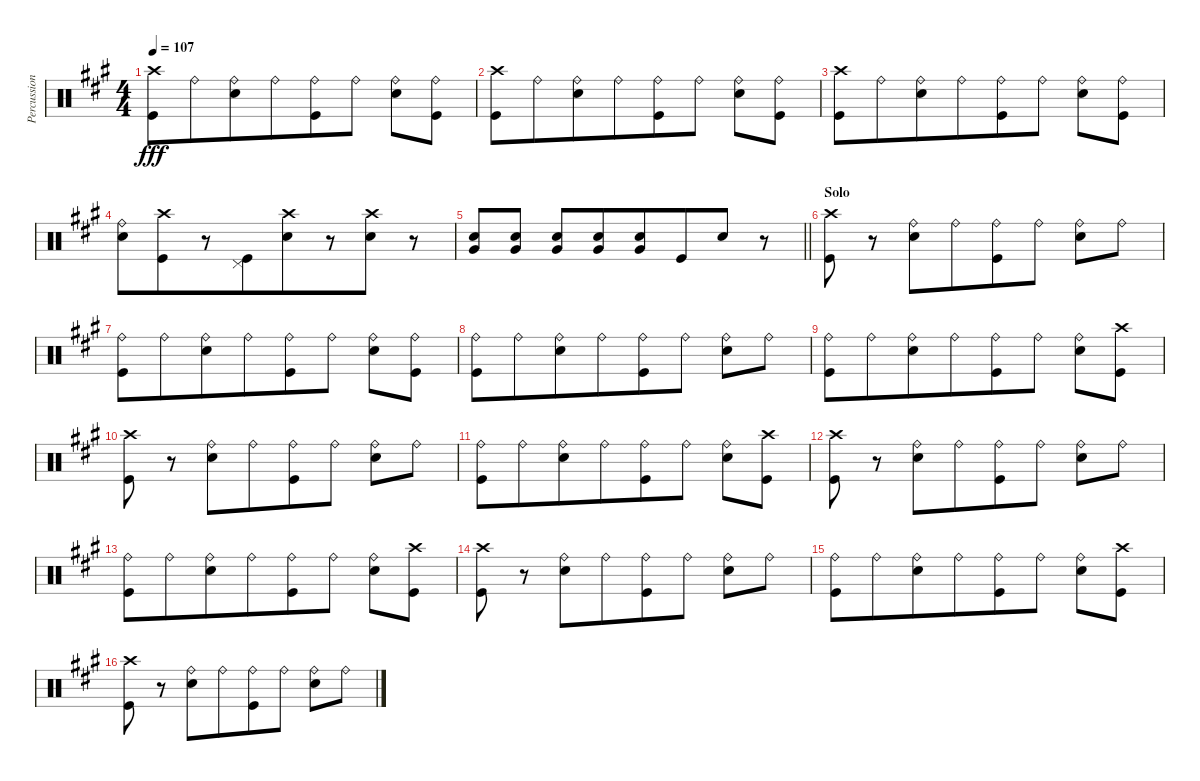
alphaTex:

\track ("Percussion" "Percussion") {instrument percussion}
\staff {score}
\articulation defaults
\ts (4 4)
\tempo 107
\clef neutral
\ks a
("Kick (hit)" "Crash high (hit)").8{dy fff} "Ride (bell)".8{beam merge} ("Electric Snare (hit)" "Ride (bell)").8{beam merge} "Ride (bell)".8{beam merge} ("Ride (bell)" "Kick (hit)").8{beam merge} "Ride (bell)".8 ("Ride (bell)" "Electric Snare (hit)").8{beam merge} ("Ride (bell)" "Kick (hit)").8 |
("Kick (hit)" "Crash high (hit)").8 "Ride (bell)".8{beam merge} ("Electric Snare (hit)" "Ride (bell)").8{beam merge} "Ride (bell)".8{beam merge} ("Ride (bell)" "Kick (hit)").8{beam merge} "Ride (bell)".8 ("Ride (bell)" "Electric Snare (hit)").8{beam merge} ("Ride (bell)" "Kick (hit)").8 |
("Kick (hit)" "Crash high (hit)").8 "Ride (bell)".8{beam merge} ("Electric Snare (hit)" "Ride (bell)").8{beam merge} "Ride (bell)".8{beam merge} ("Ride (bell)" "Kick (hit)").8{beam merge} "Ride (bell)".8 ("Ride (bell)" "Electric Snare (hit)").8{beam merge} ("Ride (bell)" "Kick (hit)").8 |
("Electric Snare (hit)" "Ride (bell)").8 ("Kick (hit)" "Crash high (hit)").8{beam merge} r.8{beam merge} ("Kick (hit)" "Pedal Hi-Hat (hit)").8{beam merge} ("Electric Snare (hit)" "Crash high (hit)").8{beam merge} r.8 ("Electric Snare (hit)" "Crash high (hit)").8{beam merge} r.8 |
\barLineRight lightlight
("Very Low Tom (hit)" "Electric Snare (hit)").8 ("Very Low Tom (hit)" "Electric Snare (hit)").8 ("Very Low Tom (hit)" "Electric Snare (hit)").8 ("Very Low Tom (hit)" "Electric Snare (hit)").8{beam merge} ("Very Low Tom (hit)" "Electric Snare (hit)").8{beam merge} "Kick (hit)".8{beam merge} "Electric Snare (hit)".8{beam merge} r.8 |
\section ("" "Solo")
("Kick (hit)" "Crash high (hit)").8 r.8{beam merge} ("Electric Snare (hit)" "Ride (bell)").8{beam merge} "Ride (bell)".8{beam merge} ("Ride (bell)" "Kick (hit)").8{beam merge} "Ride (bell)".8 ("Ride (bell)" "Electric Snare (hit)").8{beam merge} "Ride (bell)".8 |
("Kick (hit)" "Ride (bell)").8 "Ride (bell)".8{beam merge} ("Electric Snare (hit)" "Ride (bell)").8{beam merge} "Ride (bell)".8{beam merge} ("Ride (bell)" "Kick (hit)").8{beam merge} "Ride (bell)".8 ("Ride (bell)" "Electric Snare (hit)").8{beam merge} ("Ride (bell)" "Kick (hit)").8 |
("Kick (hit)" "Ride (bell)").8 "Ride (bell)".8{beam merge} ("Electric Snare (hit)" "Ride (bell)").8{beam merge} "Ride (bell)".8{beam merge} ("Ride (bell)" "Kick (hit)").8{beam merge} "Ride (bell)".8 ("Ride (bell)" "Electric Snare (hit)").8{beam merge} "Ride (bell)".8 |
("Kick (hit)" "Ride (bell)").8 "Ride (bell)".8{beam merge} ("Electric Snare (hit)" "Ride (bell)").8{beam merge} "Ride (bell)".8{beam merge} ("Ride (bell)" "Kick (hit)").8{beam merge} "Ride (bell)".8 ("Ride (bell)" "Electric Snare (hit)").8{beam merge} ("Crash high (hit)" "Kick (hit)").8 |
("Kick (hit)" "Crash high (hit)").8 r.8{beam merge} ("Electric Snare (hit)" "Ride (bell)").8{beam merge} "Ride (bell)".8{beam merge} ("Ride (bell)" "Kick (hit)").8{beam merge} "Ride (bell)".8 ("Ride (bell)" "Electric Snare (hit)").8{beam merge} "Ride (bell)".8 |
("Kick (hit)" "Ride (bell)").8 "Ride (bell)".8{beam merge} ("Electric Snare (hit)" "Ride (bell)").8{beam merge} "Ride (bell)".8{beam merge} ("Ride (bell)" "Kick (hit)").8{beam merge} "Ride (bell)".8 ("Ride (bell)" "Electric Snare (hit)").8{beam merge} ("Crash high (hit)" "Kick (hit)").8 |
("Kick (hit)" "Crash high (hit)").8 r.8{beam merge} ("Electric Snare (hit)" "Ride (bell)").8{beam merge} "Ride (bell)".8{beam merge} ("Ride (bell)" "Kick (hit)").8{beam merge} "Ride (bell)".8 ("Ride (bell)" "Electric Snare (hit)").8{beam merge} "Ride (bell)".8 |
("Kick (hit)" "Ride (bell)").8 "Ride (bell)".8{beam merge} ("Electric Snare (hit)" "Ride (bell)").8{beam merge} "Ride (bell)".8{beam merge} ("Ride (bell)" "Kick (hit)").8{beam merge} "Ride (bell)".8 ("Ride (bell)" "Electric Snare (hit)").8{beam merge} ("Crash high (hit)" "Kick (hit)").8 |
("Kick (hit)" "Crash high (hit)").8 r.8{beam merge} ("Electric Snare (hit)" "Ride (bell)").8{beam merge} "Ride (bell)".8{beam merge} ("Ride (bell)" "Kick (hit)").8{beam merge} "Ride (bell)".8 ("Ride (bell)" "Electric Snare (hit)").8{beam merge} "Ride (bell)".8 |
("Kick (hit)" "Ride (bell)").8 "Ride (bell)".8{beam merge} ("Electric Snare (hit)" "Ride (bell)").8{beam merge} "Ride (bell)".8{beam merge} ("Ride (bell)" "Kick (hit)").8{beam merge} "Ride (bell)".8 ("Ride (bell)" "Electric Snare (hit)").8{beam merge} ("Crash high (hit)" "Kick (hit)").8 |
("Kick (hit)" "Crash high (hit)").8 r.8{beam merge} ("Electric Snare (hit)" "Ride (bell)").8{beam merge} "Ride (bell)".8{beam merge} ("Ride (bell)" "Kick (hit)").8{beam merge} "Ride (bell)".8 ("Ride (bell)" "Electric Snare (hit)").8{beam merge} "Ride (bell)".8
